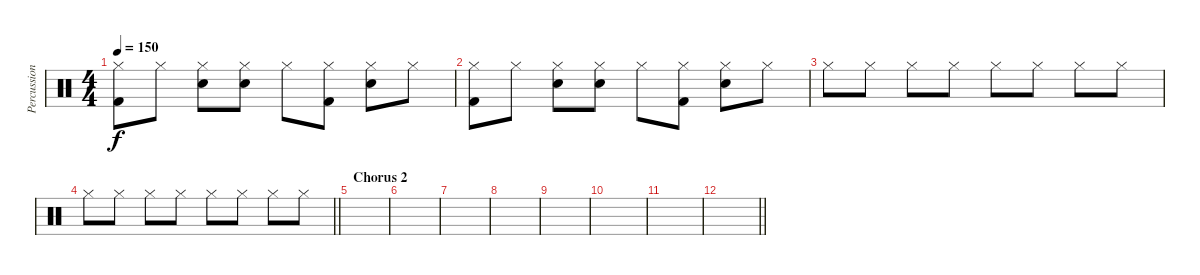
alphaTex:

\track ("Percussion" "Percussion") {instrument percussion}
\staff {score}
\articulation defaults
\ts (4 4)
\tempo 150
\clef neutral
\ks c
("Hi-Hat (closed)" "Kick (hit) 2").8{dy f} "Hi-Hat (closed)".8 ("Hi-Hat (closed)" "Snare (hit) 2").8 ("Hi-Hat (closed)" "Snare (hit) 2").8 "Hi-Hat (closed)".8 ("Hi-Hat (closed)" "Kick (hit) 2").8 ("Hi-Hat (closed)" "Snare (hit) 2").8 "Hi-Hat (closed)".8 |
("Hi-Hat (closed)" "Kick (hit) 2").8 "Hi-Hat (closed)".8 ("Hi-Hat (closed)" "Snare (hit) 2").8 ("Hi-Hat (closed)" "Snare (hit) 2").8 "Hi-Hat (closed)".8 ("Hi-Hat (closed)" "Kick (hit) 2").8 ("Hi-Hat (closed)" "Snare (hit) 2").8 "Hi-Hat (closed)".8 |
"Hi-Hat (closed)".8 "Hi-Hat (closed)".8 "Hi-Hat (closed)".8 "Hi-Hat (closed)".8 "Hi-Hat (closed)".8 "Hi-Hat (closed)".8 "Hi-Hat (closed)".8 "Hi-Hat (closed)".8 |
\barLineRight lightlight "Hi-Hat (closed)".8 "Hi-Hat (closed)".8 "Hi-Hat (closed)".8 "Hi-Hat (closed)".8 "Hi-Hat (closed)".8 "Hi-Hat (closed)".8 "Hi-Hat (closed)".8 "Hi-Hat (closed)".8
|
\section ("" "Chorus 2")
|
|
|
|
|
|
|
\barLineRight lightlight
